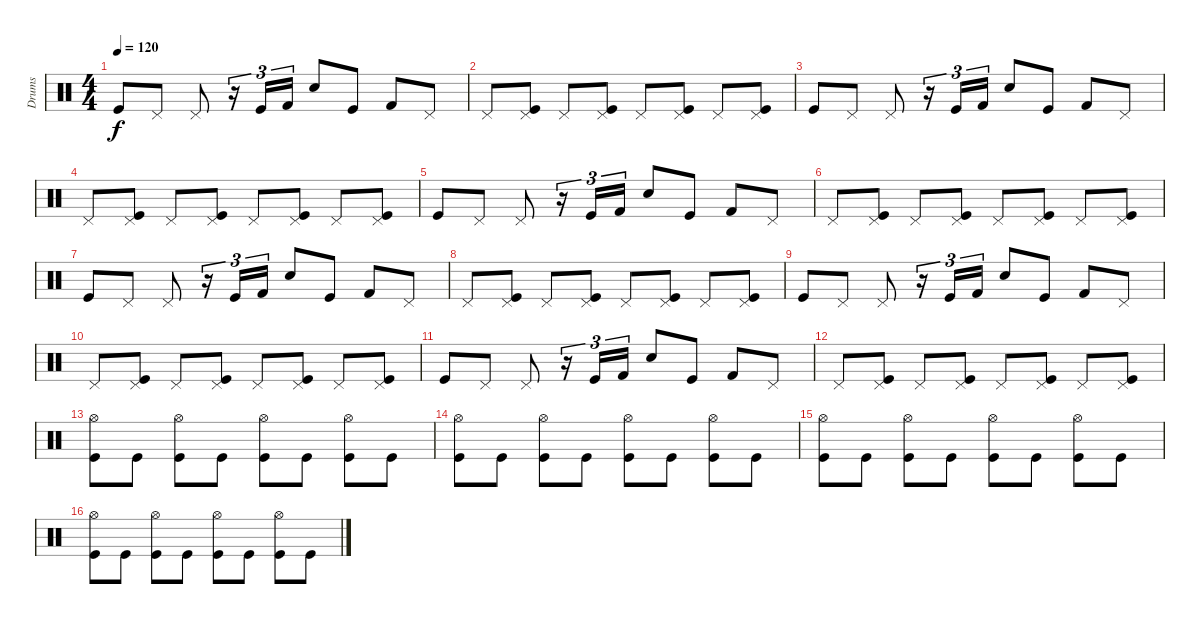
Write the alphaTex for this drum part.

\track ("Drums" "Drums") {instrument percussion}
\staff {score}
\articulation defaults
\ts (4 4)
\tempo 120
\clef neutral
\ks c "Kick (hit)".8{dy f} "Pedal Hi-Hat (hit)".8 "Pedal Hi-Hat (hit)".8
r.16{tu (3 2)} "Kick (hit)".16{tu (3 2)} "Kick (hit) 2".16{tu (3 2)} "Snare (hit) 2".8 "Kick (hit)".8 "Kick (hit) 2".8 "Pedal Hi-Hat (hit)".8 |
"Pedal Hi-Hat (hit)".8 ("Kick (hit)" "Pedal Hi-Hat (hit)").8 "Pedal Hi-Hat (hit)".8 ("Pedal Hi-Hat (hit)" "Kick (hit)").8 "Pedal Hi-Hat (hit)".8 ("Kick (hit)" "Pedal Hi-Hat (hit)").8 "Pedal Hi-Hat (hit)".8 ("Kick (hit)" "Pedal Hi-Hat (hit)").8 |
"Kick (hit)".8 "Pedal Hi-Hat (hit)".8 "Pedal Hi-Hat (hit)".8 r.16{tu (3 2)} "Kick (hit)".16{tu (3 2)} "Kick (hit) 2".16{tu (3 2)} "Snare (hit) 2".8 "Kick (hit)".8 "Kick (hit) 2".8 "Pedal Hi-Hat (hit)".8 |
"Pedal Hi-Hat (hit)".8 ("Kick (hit)" "Pedal Hi-Hat (hit)").8 "Pedal Hi-Hat (hit)".8 ("Pedal Hi-Hat (hit)" "Kick (hit)").8 "Pedal Hi-Hat (hit)".8 ("Kick (hit)" "Pedal Hi-Hat (hit)").8 "Pedal Hi-Hat (hit)".8 ("Kick (hit)" "Pedal Hi-Hat (hit)").8 |
"Kick (hit)".8 "Pedal Hi-Hat (hit)".8 "Pedal Hi-Hat (hit)".8 r.16{tu (3 2)} "Kick (hit)".16{tu (3 2)} "Kick (hit) 2".16{tu (3 2)} "Snare (hit) 2".8 "Kick (hit)".8 "Kick (hit) 2".8 "Pedal Hi-Hat (hit)".8 |
"Pedal Hi-Hat (hit)".8 ("Kick (hit)" "Pedal Hi-Hat (hit)").8 "Pedal Hi-Hat (hit)".8 ("Pedal Hi-Hat (hit)" "Kick (hit)").8 "Pedal Hi-Hat (hit)".8 ("Kick (hit)" "Pedal Hi-Hat (hit)").8 "Pedal Hi-Hat (hit)".8 ("Kick (hit)" "Pedal Hi-Hat (hit)").8 |
"Kick (hit)".8 "Pedal Hi-Hat (hit)".8 "Pedal Hi-Hat (hit)".8 r.16{tu (3 2)} "Kick (hit)".16{tu (3 2)} "Kick (hit) 2".16{tu (3 2)} "Snare (hit) 2".8 "Kick (hit)".8 "Kick (hit) 2".8 "Pedal Hi-Hat (hit)".8 |
"Pedal Hi-Hat (hit)".8 ("Kick (hit)" "Pedal Hi-Hat (hit)").8 "Pedal Hi-Hat (hit)".8 ("Pedal Hi-Hat (hit)" "Kick (hit)").8 "Pedal Hi-Hat (hit)".8 ("Kick (hit)" "Pedal Hi-Hat (hit)").8 "Pedal Hi-Hat (hit)".8 ("Kick (hit)" "Pedal Hi-Hat (hit)").8 |
"Kick (hit)".8 "Pedal Hi-Hat (hit)".8 "Pedal Hi-Hat (hit)".8 r.16{tu (3 2)} "Kick (hit)".16{tu (3 2)} "Kick (hit) 2".16{tu (3 2)} "Snare (hit) 2".8 "Kick (hit)".8 "Kick (hit) 2".8 "Pedal Hi-Hat (hit)".8 |
"Pedal Hi-Hat (hit)".8 ("Kick (hit)" "Pedal Hi-Hat (hit)").8 "Pedal Hi-Hat (hit)".8 ("Pedal Hi-Hat (hit)" "Kick (hit)").8 "Pedal Hi-Hat (hit)".8 ("Kick (hit)" "Pedal Hi-Hat (hit)").8 "Pedal Hi-Hat (hit)".8 ("Kick (hit)" "Pedal Hi-Hat (hit)").8 |
"Kick (hit)".8 "Pedal Hi-Hat (hit)".8 "Pedal Hi-Hat (hit)".8 r.16{tu (3 2)} "Kick (hit)".16{tu (3 2)} "Kick (hit) 2".16{tu (3 2)} "Snare (hit) 2".8 "Kick (hit)".8 "Kick (hit) 2".8 "Pedal Hi-Hat (hit)".8 |
"Pedal Hi-Hat (hit)".8 ("Kick (hit)" "Pedal Hi-Hat (hit)").8 "Pedal Hi-Hat (hit)".8 ("Pedal Hi-Hat (hit)" "Kick (hit)").8 "Pedal Hi-Hat (hit)".8 ("Kick (hit)" "Pedal Hi-Hat (hit)").8 "Pedal Hi-Hat (hit)".8 ("Kick (hit)" "Pedal Hi-Hat (hit)").8 |
("Kick (hit)" "Hi-Hat (open)").8 "Kick (hit)".8 ("Hi-Hat (open)" "Kick (hit)").8 "Kick (hit)".8 ("Hi-Hat (open)" "Kick (hit)").8 "Kick (hit)".8 ("Hi-Hat (open)" "Kick (hit)").8 "Kick (hit)".8 |
("Kick (hit)" "Hi-Hat (open)").8 "Kick (hit)".8 ("Hi-Hat (open)" "Kick (hit)").8 "Kick (hit)".8 ("Hi-Hat (open)" "Kick (hit)").8 "Kick (hit)".8 ("Hi-Hat (open)" "Kick (hit)").8 "Kick (hit)".8 |
("Kick (hit)" "Hi-Hat (open)").8 "Kick (hit)".8 ("Hi-Hat (open)" "Kick (hit)").8 "Kick (hit)".8 ("Hi-Hat (open)" "Kick (hit)").8 "Kick (hit)".8 ("Hi-Hat (open)" "Kick (hit)").8 "Kick (hit)".8 |
("Kick (hit)" "Hi-Hat (open)").8 "Kick (hit)".8 ("Hi-Hat (open)" "Kick (hit)").8 "Kick (hit)".8 ("Hi-Hat (open)" "Kick (hit)").8 "Kick (hit)".8 ("Hi-Hat (open)" "Kick (hit)").8 "Kick (hit)".8
